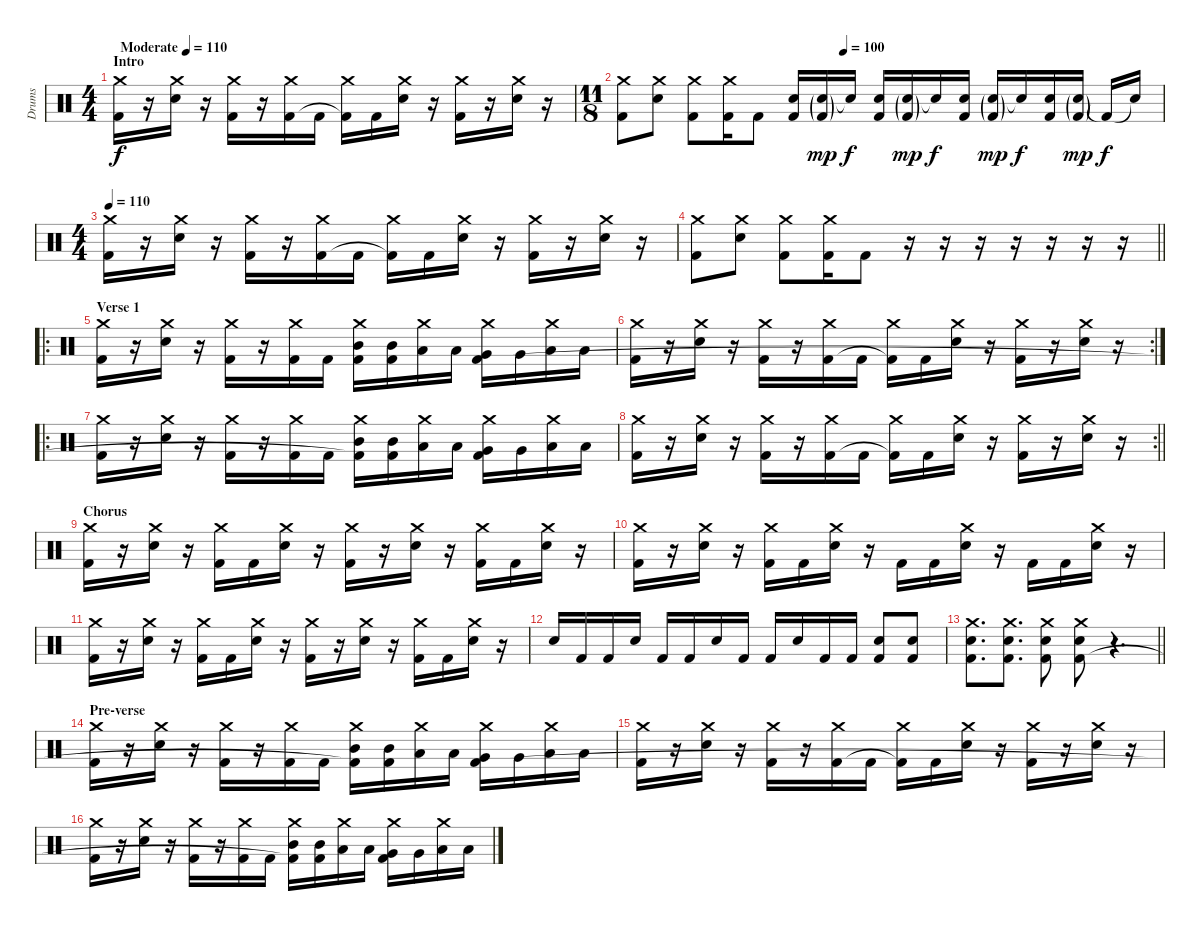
\track ("Drums" "Drums") {instrument percussion}
\staff {score}
\articulation defaults
\ts (4 4)
\section ("" "Intro")
\tempo (110 "Moderate")
\clef neutral
\ks c
("Crash medium (hit)" "Kick (hit) 2").16{dy f volume 8} r.16 ("Crash medium (hit)" "Electric Snare (hit)").16 r.16 ("Crash medium (hit)" "Kick (hit) 2").16 r.16 ("Crash medium (hit)" "Kick (hit) 2").16 "Kick (hit) 2".16 ("Crash medium (hit)" "Kick (hit) 2"{t}).16 "Kick (hit) 2".16 ("Crash medium (hit)" "Electric Snare (hit)").16 r.16 ("Crash medium (hit)" "Kick (hit) 2").16 r.16 ("Crash medium (hit)" "Electric Snare (hit)").16 r.16 |
\ts (11 8)
\tempo (100 0.4090909090909091)
("Crash medium (hit)" "Kick (hit) 2").8 ("Crash medium (hit)" "Electric Snare (hit)").8 ("Crash medium (hit)" "Kick (hit) 2").8 ("Crash medium (hit)" "Kick (hit) 2").16 "Kick (hit) 2".8 ("Electric Snare (hit)" "Kick (hit) 2").16{balance 4} ("Electric Snare (hit)"{g} "Kick (hit) 2"{g}).16{dy mp} "Snare (hit)"{t}.16{dy f} ("Electric Snare (hit)" "Kick (hit) 2").16{balance 12} ("Electric Snare (hit)"{g} "Kick (hit) 2"{g}).16{dy mp} "Snare (hit)"{t}.16{dy f} ("Electric Snare (hit)" "Kick (hit) 2").16{balance 4} ("Electric Snare (hit)"{g} "Kick (hit) 2"{g}).16{dy mp} "Snare (hit)"{t}.16{dy f} ("Electric Snare (hit)" "Kick (hit) 2").16{balance 12} ("Electric Snare (hit)"{g} "Kick (hit) 2"{g}).16{dy mp} "Kick (hit) 2"{t}.16{dy f} "Snare (hit)"{t}.16 |
\ts (4 4)
\tempo 110
("Crash medium (hit)" "Kick (hit) 2").16{volume 14} r.16 ("Crash medium (hit)" "Electric Snare (hit)").16 r.16 ("Crash medium (hit)" "Kick (hit) 2").16 r.16 ("Crash medium (hit)" "Kick (hit) 2").16 "Kick (hit) 2".16 ("Crash medium (hit)" "Kick (hit) 2"{t}).16 "Kick (hit) 2".16 ("Crash medium (hit)" "Electric Snare (hit)").16 r.16 ("Crash medium (hit)" "Kick (hit) 2").16 r.16 ("Crash medium (hit)" "Electric Snare (hit)").16 r.16 |
\barLineRight lightlight
("Crash medium (hit)" "Kick (hit) 2").8 ("Crash medium (hit)" "Electric Snare (hit)").8 ("Crash medium (hit)" "Kick (hit) 2").8 ("Crash medium (hit)" "Kick (hit) 2").16 "Kick (hit) 2".8 r.16 r.16 r.16 r.16 r.16 r.16 r.16 |
\ro
\section ("" "Verse 1")
("Crash medium (hit)" "Kick (hit) 2").16 r.16 ("Crash medium (hit)" "Electric Snare (hit)").16 r.16 ("Crash medium (hit)" "Kick (hit) 2").16 r.16 ("Crash medium (hit)" "Kick (hit) 2").16 "Kick (hit) 2".16 ("Crash medium (hit)" "Mid Tom (hit)" "Kick (hit) 2").16 ("Mid Tom (hit)" "Kick (hit) 2").16 ("Crash medium (hit)" "Low Tom (hit)").16 "Low Tom (hit)".16 ("Crash medium (hit)" "Very Low Tom (hit)" "Kick (hit) 2").16 "Very Low Tom (hit)".16 ("Crash medium (hit)" "Low Floor Tom (hit)").16 "Low Floor Tom (hit)".16 |
\rc 2
("Crash medium (hit)" "Kick (hit) 2").16 r.16 ("Crash medium (hit)" "Electric Snare (hit)").16 r.16 ("Crash medium (hit)" "Kick (hit) 2").16 r.16 ("Crash medium (hit)" "Kick (hit) 2").16 "Kick (hit) 2".16 ("Crash medium (hit)" "Kick (hit) 2"{t}).16 "Kick (hit) 2".16 ("Crash medium (hit)" "Electric Snare (hit)").16 r.16 ("Crash medium (hit)" "Kick (hit) 2").16 r.16 ("Crash medium (hit)" "Electric Snare (hit)").16 r.16 |
\ro
("Crash medium (hit)" "Kick (hit) 2").16 r.16 ("Crash medium (hit)" "Electric Snare (hit)").16 r.16 ("Crash medium (hit)" "Kick (hit) 2").16 r.16 ("Crash medium (hit)" "Kick (hit) 2").16 "Kick (hit) 2".16 ("Crash medium (hit)" "Mid Tom (hit)" "Kick (hit) 2"{t}).16 ("Mid Tom (hit)" "Kick (hit) 2").16 ("Crash medium (hit)" "Low Tom (hit)").16 "Low Tom (hit)".16 ("Crash medium (hit)" "Very Low Tom (hit)" "Kick (hit) 2").16 "Very Low Tom (hit)".16 ("Crash medium (hit)" "Low Floor Tom (hit)").16 "Low Floor Tom (hit)".16 |
\rc 2
\barLineRight lightlight
("Crash medium (hit)" "Kick (hit) 2").16 r.16 ("Crash medium (hit)" "Electric Snare (hit)").16 r.16 ("Crash medium (hit)" "Kick (hit) 2").16 r.16 ("Crash medium (hit)" "Kick (hit) 2").16 "Kick (hit) 2".16 ("Crash medium (hit)" "Kick (hit) 2"{t}).16 "Kick (hit) 2".16 ("Crash medium (hit)" "Electric Snare (hit)").16 r.16 ("Crash medium (hit)" "Kick (hit) 2").16 r.16 ("Crash medium (hit)" "Electric Snare (hit)").16 r.16 |
\section ("" "Chorus")
("Crash medium (hit)" "Kick (hit) 2").16 r.16 ("Crash medium (hit)" "Electric Snare (hit)").16 r.16 ("Crash medium (hit)" "Kick (hit) 2").16 "Kick (hit) 2".16 ("Crash medium (hit)" "Electric Snare (hit)").16 r.16 ("Crash medium (hit)" "Kick (hit) 2").16 r.16 ("Crash medium (hit)" "Electric Snare (hit)").16 r.16 ("Crash medium (hit)" "Kick (hit) 2").16 "Kick (hit) 2".16 ("Crash medium (hit)" "Electric Snare (hit)").16 r.16 |
("Crash medium (hit)" "Kick (hit) 2").16 r.16 ("Crash medium (hit)" "Electric Snare (hit)").16 r.16 ("Crash medium (hit)" "Kick (hit) 2").16 "Kick (hit) 2".16 ("Crash medium (hit)" "Electric Snare (hit)").16 r.16 "Kick (hit) 2".16 "Kick (hit) 2".16 ("Crash medium (hit)" "Electric Snare (hit)").16 r.16 "Kick (hit) 2".16 "Kick (hit) 2".16 ("Crash medium (hit)" "Electric Snare (hit)").16 r.16 |
("Crash medium (hit)" "Kick (hit) 2").16 r.16 ("Crash medium (hit)" "Electric Snare (hit)").16 r.16 ("Crash medium (hit)" "Kick (hit) 2").16 "Kick (hit) 2".16 ("Crash medium (hit)" "Electric Snare (hit)").16 r.16 ("Crash medium (hit)" "Kick (hit) 2").16 r.16 ("Crash medium (hit)" "Electric Snare (hit)").16 r.16 ("Crash medium (hit)" "Kick (hit) 2").16 "Kick (hit) 2".16 ("Crash medium (hit)" "Electric Snare (hit)").16 r.16 |
"Electric Snare (hit)".16 "Kick (hit) 2".16 "Kick (hit) 2".16 "Electric Snare (hit)".16 "Kick (hit) 2".16 "Kick (hit) 2".16 "Electric Snare (hit)".16 "Kick (hit) 2".16 "Kick (hit) 2".16 "Electric Snare (hit)".16 "Kick (hit) 2".16 "Kick (hit) 2".16 ("Electric Snare (hit)" "Kick (hit) 2").8 ("Electric Snare (hit)" "Kick (hit) 2").8 |
\barLineRight lightlight
("Crash medium (hit)" "Electric Snare (hit)" "Kick (hit) 2").8{d} ("Crash medium (hit)" "Electric Snare (hit)" "Kick (hit) 2").8{d} ("Crash medium (hit)" "Electric Snare (hit)" "Kick (hit) 2").8 ("Crash medium (hit)" "Electric Snare (hit)" "Kick (hit) 2").8 r.4{d} |
\section ("" "Pre-verse")
("Crash medium (hit)" "Kick (hit) 2").16 r.16 ("Crash medium (hit)" "Electric Snare (hit)").16 r.16 ("Crash medium (hit)" "Kick (hit) 2").16 r.16 ("Crash medium (hit)" "Kick (hit) 2").16 "Kick (hit) 2".16 ("Crash medium (hit)" "Mid Tom (hit)" "Kick (hit) 2"{t}).16 ("Mid Tom (hit)" "Kick (hit) 2").16 ("Crash medium (hit)" "Low Tom (hit)").16 "Low Tom (hit)".16 ("Crash medium (hit)" "Very Low Tom (hit)" "Kick (hit) 2").16 "Very Low Tom (hit)".16 ("Crash medium (hit)" "Low Floor Tom (hit)").16 "Low Floor Tom (hit)".16 |
("Crash medium (hit)" "Kick (hit) 2").16 r.16 ("Crash medium (hit)" "Electric Snare (hit)").16 r.16 ("Crash medium (hit)" "Kick (hit) 2").16 r.16 ("Crash medium (hit)" "Kick (hit) 2").16 "Kick (hit) 2".16 ("Crash medium (hit)" "Kick (hit) 2"{t}).16 "Kick (hit) 2".16 ("Crash medium (hit)" "Electric Snare (hit)").16 r.16 ("Crash medium (hit)" "Kick (hit) 2").16 r.16 ("Crash medium (hit)" "Electric Snare (hit)").16 r.16 |
("Crash medium (hit)" "Kick (hit) 2").16 r.16 ("Crash medium (hit)" "Electric Snare (hit)").16 r.16 ("Crash medium (hit)" "Kick (hit) 2").16 r.16 ("Crash medium (hit)" "Kick (hit) 2").16 "Kick (hit) 2".16 ("Crash medium (hit)" "Mid Tom (hit)" "Kick (hit) 2"{t}).16 ("Mid Tom (hit)" "Kick (hit) 2").16 ("Crash medium (hit)" "Low Tom (hit)").16 "Low Tom (hit)".16 ("Crash medium (hit)" "Very Low Tom (hit)" "Kick (hit) 2").16 "Very Low Tom (hit)".16 ("Crash medium (hit)" "Low Floor Tom (hit)").16 "Low Floor Tom (hit)".16
